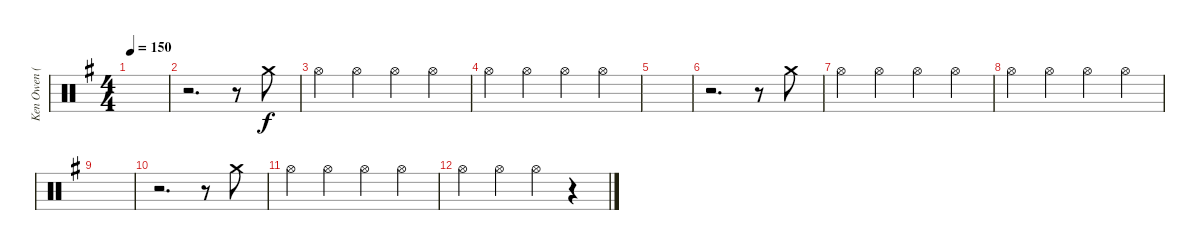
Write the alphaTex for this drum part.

\track ("Ken Owen (Extra Cymbals)" "Ken Owen (") {instrument percussion}
\staff {score}
\articulation defaults
\ts (4 4)
\tempo 150
\clef neutral
\ks g
|
r.2{d} r.8 "Crash medium (hit)".8 |
"Hi-Hat (open)".4 "Hi-Hat (open)".4 "Hi-Hat (open)".4 "Hi-Hat (open)".4 |
"Hi-Hat (open)".4 "Hi-Hat (open)".4 "Hi-Hat (open)".4 "Hi-Hat (open)".4 |
|
r.2{d} r.8 "Crash medium (hit)".8 |
"Hi-Hat (open)".4 "Hi-Hat (open)".4 "Hi-Hat (open)".4 "Hi-Hat (open)".4 |
"Hi-Hat (open)".4 "Hi-Hat (open)".4 "Hi-Hat (open)".4 "Hi-Hat (open)".4 |
|
r.2{d} r.8 "Crash medium (hit)".8 |
"Hi-Hat (open)".4 "Hi-Hat (open)".4 "Hi-Hat (open)".4 "Hi-Hat (open)".4 |
"Hi-Hat (open)".4 "Hi-Hat (open)".4 "Hi-Hat (open)".4 r.4
